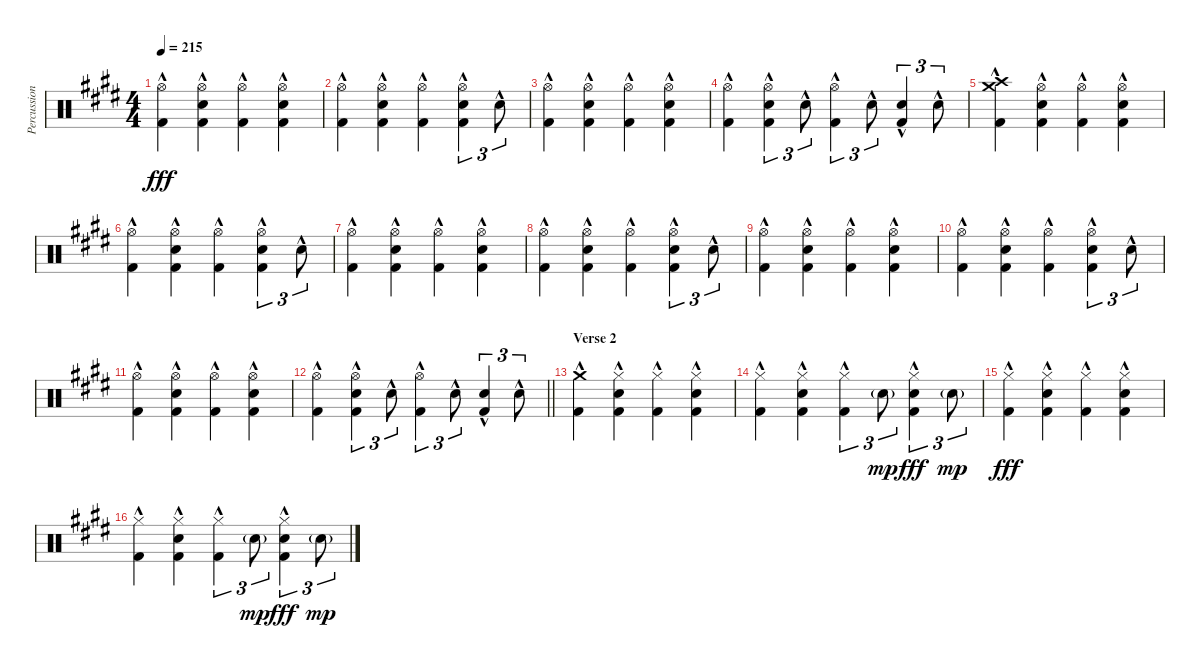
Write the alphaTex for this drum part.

\track ("Percussion" "Percussion") {instrument percussion}
\staff {score}
\articulation defaults
\ts (4 4)
\tempo 215
\clef neutral
\ks e
("Hi-Hat (open)" "Kick (hit) 2"{hac}).4{dy fff} ("Hi-Hat (open)" "Electric Snare (hit)"{hac} "Kick (hit) 2"{hac}).4 ("Hi-Hat (open)" "Kick (hit) 2"{hac}).4 ("Hi-Hat (open)" "Electric Snare (hit)"{hac} "Kick (hit) 2"{hac}).4 |
("Hi-Hat (open)" "Kick (hit) 2"{hac}).4 ("Hi-Hat (open)" "Electric Snare (hit)"{hac} "Kick (hit) 2"{hac}).4 ("Hi-Hat (open)" "Kick (hit) 2"{hac}).4 ("Hi-Hat (open)" "Electric Snare (hit)"{hac} "Kick (hit) 2"{hac}).4{tu (3 2)} "Electric Snare (hit)"{hac}.8{tu (3 2)} |
("Hi-Hat (open)" "Kick (hit) 2"{hac}).4 ("Hi-Hat (open)" "Electric Snare (hit)"{hac} "Kick (hit) 2"{hac}).4 ("Hi-Hat (open)" "Kick (hit) 2"{hac}).4 ("Hi-Hat (open)" "Electric Snare (hit)"{hac} "Kick (hit) 2"{hac}).4 |
("Hi-Hat (open)" "Kick (hit) 2"{hac}).4 ("Hi-Hat (open)" "Electric Snare (hit)"{hac} "Kick (hit) 2"{hac}).4{tu (3 2)} "Electric Snare (hit)"{hac}.8{tu (3 2)} ("Hi-Hat (open)" "Kick (hit) 2"{hac}).4{tu (3 2)} "Electric Snare (hit)"{hac}.8{tu (3 2)} ("Electric Snare (hit)"{hac} "Kick (hit) 2"{hac}).4{tu (3 2)} "Electric Snare (hit)"{hac}.8{tu (3 2)} |
("Crash high (hit)" "Crash medium (hit)" "Kick (hit) 2"{hac}).4 ("Hi-Hat (open)" "Electric Snare (hit)"{hac} "Kick (hit) 2"{hac}).4 ("Hi-Hat (open)" "Kick (hit) 2"{hac}).4 ("Hi-Hat (open)" "Electric Snare (hit)"{hac} "Kick (hit) 2"{hac}).4 |
("Hi-Hat (open)" "Kick (hit) 2"{hac}).4 ("Hi-Hat (open)" "Electric Snare (hit)"{hac} "Kick (hit) 2"{hac}).4 ("Hi-Hat (open)" "Kick (hit) 2"{hac}).4 ("Hi-Hat (open)" "Electric Snare (hit)"{hac} "Kick (hit) 2"{hac}).4{tu (3 2)} "Electric Snare (hit)"{hac}.8{tu (3 2)} |
("Hi-Hat (open)" "Kick (hit) 2"{hac}).4 ("Hi-Hat (open)" "Electric Snare (hit)"{hac} "Kick (hit) 2"{hac}).4 ("Hi-Hat (open)" "Kick (hit) 2"{hac}).4 ("Hi-Hat (open)" "Electric Snare (hit)"{hac} "Kick (hit) 2"{hac}).4 |
("Hi-Hat (open)" "Kick (hit) 2"{hac}).4 ("Hi-Hat (open)" "Electric Snare (hit)"{hac} "Kick (hit) 2"{hac}).4 ("Hi-Hat (open)" "Kick (hit) 2"{hac}).4 ("Hi-Hat (open)" "Electric Snare (hit)"{hac} "Kick (hit) 2"{hac}).4{tu (3 2)} "Electric Snare (hit)"{hac}.8{tu (3 2)} |
("Hi-Hat (open)" "Kick (hit) 2"{hac}).4 ("Hi-Hat (open)" "Electric Snare (hit)"{hac} "Kick (hit) 2"{hac}).4 ("Hi-Hat (open)" "Kick (hit) 2"{hac}).4 ("Hi-Hat (open)" "Electric Snare (hit)"{hac} "Kick (hit) 2"{hac}).4 |
("Hi-Hat (open)" "Kick (hit) 2"{hac}).4 ("Hi-Hat (open)" "Electric Snare (hit)"{hac} "Kick (hit) 2"{hac}).4 ("Hi-Hat (open)" "Kick (hit) 2"{hac}).4 ("Hi-Hat (open)" "Electric Snare (hit)"{hac} "Kick (hit) 2"{hac}).4{tu (3 2)} "Electric Snare (hit)"{hac}.8{tu (3 2)} |
("Hi-Hat (open)" "Kick (hit) 2"{hac}).4 ("Hi-Hat (open)" "Electric Snare (hit)"{hac} "Kick (hit) 2"{hac}).4 ("Hi-Hat (open)" "Kick (hit) 2"{hac}).4 ("Hi-Hat (open)" "Electric Snare (hit)"{hac} "Kick (hit) 2"{hac}).4 |
\barLineRight lightlight
("Hi-Hat (open)" "Kick (hit) 2"{hac}).4 ("Hi-Hat (open)" "Electric Snare (hit)"{hac} "Kick (hit) 2"{hac}).4{tu (3 2)} "Electric Snare (hit)"{hac}.8{tu (3 2)} ("Hi-Hat (open)" "Kick (hit) 2"{hac}).4{tu (3 2)} "Electric Snare (hit)"{hac}.8{tu (3 2)} ("Electric Snare (hit)"{hac} "Kick (hit) 2"{hac}).4{tu (3 2)} "Electric Snare (hit)"{hac}.8{tu (3 2)} |
\section ("" "Verse 2")
("Crash medium (hit)" "Kick (hit) 2"{hac}).4 ("Hi-Hat (closed)" "Electric Snare (hit)"{hac} "Kick (hit) 2"{hac}).4 ("Hi-Hat (closed)" "Kick (hit) 2"{hac}).4 ("Hi-Hat (closed)" "Electric Snare (hit)"{hac} "Kick (hit) 2"{hac}).4 |
("Hi-Hat (closed)" "Kick (hit) 2"{hac}).4 ("Hi-Hat (closed)" "Electric Snare (hit)"{hac} "Kick (hit) 2"{hac}).4 ("Hi-Hat (closed)" "Kick (hit) 2"{hac}).4{tu (3 2)} "Electric Snare (hit)"{g}.8{tu (3 2) dy mp} ("Hi-Hat (closed)" "Electric Snare (hit)"{hac} "Kick (hit) 2"{hac}).4{tu (3 2) dy fff} "Electric Snare (hit)"{g}.8{tu (3 2) dy mp} |
("Hi-Hat (closed)" "Kick (hit) 2"{hac}).4{dy fff} ("Hi-Hat (closed)" "Electric Snare (hit)"{hac} "Kick (hit) 2"{hac}).4 ("Hi-Hat (closed)" "Kick (hit) 2"{hac}).4 ("Hi-Hat (closed)" "Electric Snare (hit)"{hac} "Kick (hit) 2"{hac}).4 |
("Hi-Hat (closed)" "Kick (hit) 2"{hac}).4 ("Hi-Hat (closed)" "Electric Snare (hit)"{hac} "Kick (hit) 2"{hac}).4 ("Hi-Hat (closed)" "Kick (hit) 2"{hac}).4{tu (3 2)} "Electric Snare (hit)"{g}.8{tu (3 2) dy mp} ("Hi-Hat (closed)" "Electric Snare (hit)"{hac} "Kick (hit) 2"{hac}).4{tu (3 2) dy fff} "Electric Snare (hit)"{g}.8{tu (3 2) dy mp}
